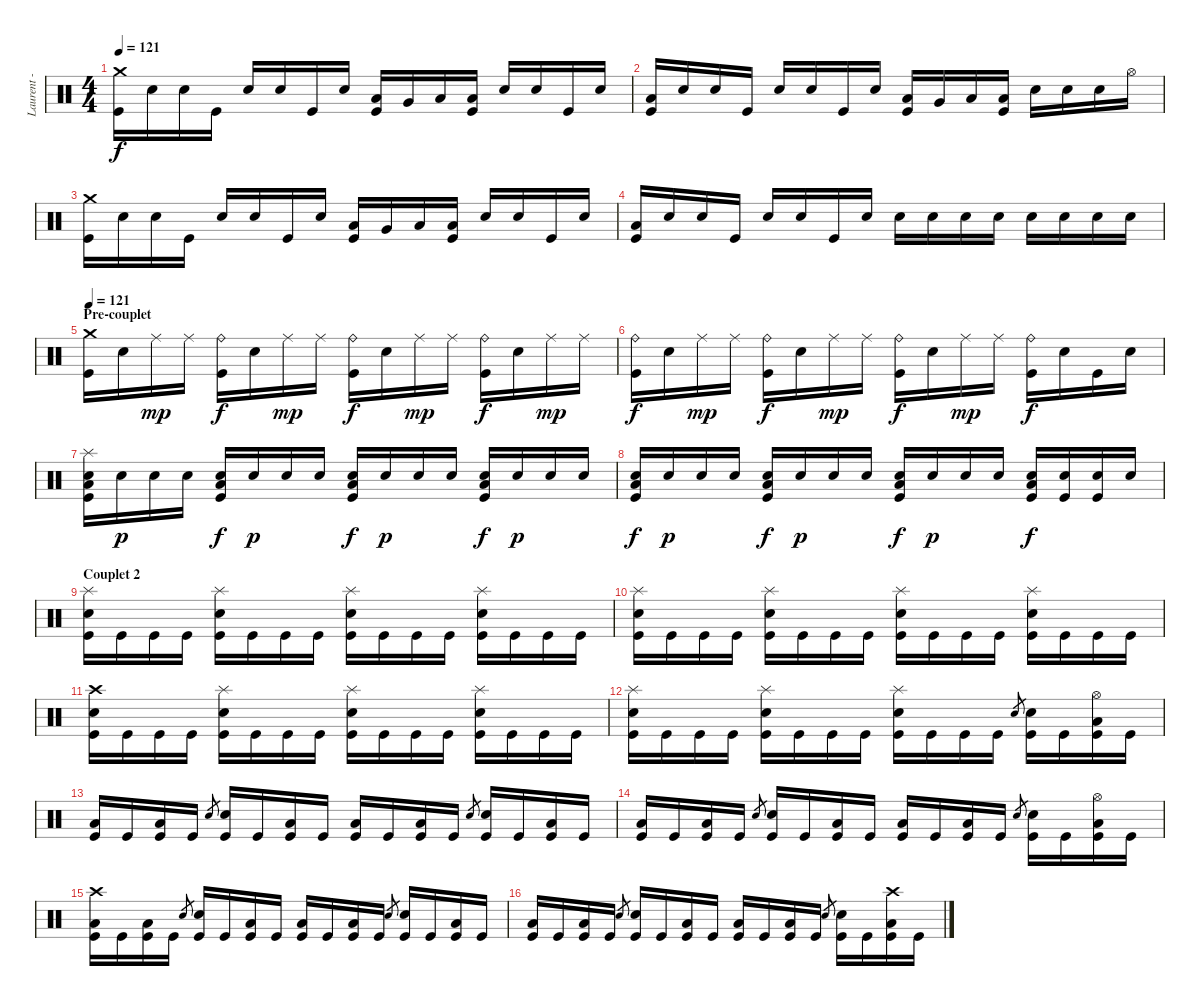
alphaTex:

\track ("Laurent - Batterie" "Laurent - ") {instrument percussion}
\staff {score}
\articulation defaults
\ts (4 4)
\tempo 121
\clef neutral
\ks c
("Crash medium (hit)" "Kick (hit)").16{dy f} "Snare (hit)".16 "Snare (hit)".16 "Kick (hit)".16 "Electric Snare (hit)".16 "Snare (hit)".16 "Kick (hit)".16 "Snare (hit)".16 ("Low Tom (hit)" "Kick (hit)").16 "Very Low Tom (hit)".16 "Low Floor Tom (hit)".16 ("Low Floor Tom (hit)" "Kick (hit)").16 "Electric Snare (hit)".16 "Snare (hit)".16 "Kick (hit)".16 "Snare (hit)".16 |
("Low Floor Tom (hit)" "Kick (hit)").16 "Snare (hit)".16 "Snare (hit)".16 "Kick (hit)".16 "Electric Snare (hit)".16 "Snare (hit)".16 "Kick (hit)".16 "Snare (hit)".16 ("Low Tom (hit)" "Kick (hit)").16 "Very Low Tom (hit)".16 "Low Floor Tom (hit)".16 ("Low Floor Tom (hit)" "Kick (hit)").16 "Electric Snare (hit)".16 "Snare (hit)".16 "Snare (hit)".16 "Hi-Hat (open)".16 |
("Crash medium (hit)" "Kick (hit)").16 "Snare (hit)".16 "Snare (hit)".16 "Kick (hit)".16 "Electric Snare (hit)".16 "Snare (hit)".16 "Kick (hit)".16 "Snare (hit)".16 ("Low Tom (hit)" "Kick (hit)").16 "Very Low Tom (hit)".16 "Low Floor Tom (hit)".16 ("Low Floor Tom (hit)" "Kick (hit)").16 "Electric Snare (hit)".16 "Snare (hit)".16 "Kick (hit)".16 "Snare (hit)".16 |
("Low Floor Tom (hit)" "Kick (hit)").16 "Snare (hit)".16 "Snare (hit)".16 "Kick (hit)".16 "Electric Snare (hit)".16 "Snare (hit)".16 "Kick (hit)".16 "Snare (hit)".16 "Electric Snare (hit)".16 "Electric Snare (hit)".16 "Electric Snare (hit)".16 "Snare (hit)".16 "Electric Snare (hit)".16 "Electric Snare (hit)".16 "Electric Snare (hit)".16 "Snare (hit)".16 |
\section ("" "Pre-couplet")
\tempo 121
("Crash medium (hit)" "Kick (hit)").16{volume 16 balance 8} "Snare (hit)".16 "Ride (middle)".16{dy mp} "Ride (middle)".16 ("Ride (bell)" "Kick (hit)").16{dy f} "Snare (hit)".16 "Ride (middle)".16{dy mp} "Ride (middle)".16 ("Ride (bell)" "Kick (hit)").16{dy f} "Snare (hit)".16 "Ride (middle)".16{dy mp} "Ride (middle)".16 ("Ride (bell)" "Kick (hit)").16{dy f} "Snare (hit)".16 "Ride (middle)".16{dy mp} "Ride (middle)".16 |
("Ride (bell)" "Kick (hit)").16{dy f} "Snare (hit)".16 "Ride (middle)".16{dy mp} "Ride (middle)".16 ("Ride (bell)" "Kick (hit)").16{dy f} "Snare (hit)".16 "Ride (middle)".16{dy mp} "Ride (middle)".16 ("Ride (bell)" "Kick (hit)").16{dy f} "Snare (hit)".16 "Ride (middle)".16{dy mp} "Ride (middle)".16 ("Ride (bell)" "Kick (hit)").16{dy f} "Snare (hit)".16 "Kick (hit)".16 "Snare (hit)".16 |
("Splash (hit)" "Electric Snare (hit)" "Low Floor Tom (hit)" "Kick (hit)").16 "Electric Snare (hit)".16{dy p} "Electric Snare (hit)".16 "Electric Snare (hit)".16 ("Electric Snare (hit)" "Low Floor Tom (hit)" "Kick (hit)").16{dy f} "Electric Snare (hit)".16{dy p} "Electric Snare (hit)".16 "Electric Snare (hit)".16 ("Electric Snare (hit)" "Low Floor Tom (hit)" "Kick (hit)").16{dy f} "Electric Snare (hit)".16{dy p} "Electric Snare (hit)".16 "Electric Snare (hit)".16 ("Electric Snare (hit)" "Low Floor Tom (hit)" "Kick (hit)").16{dy f} "Electric Snare (hit)".16{dy p} "Electric Snare (hit)".16 "Electric Snare (hit)".16 |
("Electric Snare (hit)" "Low Floor Tom (hit)" "Kick (hit)").16{dy f} "Electric Snare (hit)".16{dy p} "Electric Snare (hit)".16 "Electric Snare (hit)".16 ("Electric Snare (hit)" "Low Floor Tom (hit)" "Kick (hit)").16{dy f} "Electric Snare (hit)".16{dy p} "Electric Snare (hit)".16 "Electric Snare (hit)".16 ("Electric Snare (hit)" "Low Floor Tom (hit)" "Kick (hit)").16{dy f} "Electric Snare (hit)".16{dy p} "Electric Snare (hit)".16 "Electric Snare (hit)".16 ("Electric Snare (hit)" "Low Floor Tom (hit)" "Kick (hit)").16{dy f} ("Electric Snare (hit)" "Kick (hit)").16 ("Electric Snare (hit)" "Kick (hit)").16 "Snare (hit)".16 |
\section ("" "Couplet 2")
("Splash (hit)" "Electric Snare (hit)" "Kick (hit)").16{volume 16 balance 8} "Kick (hit)".16 "Kick (hit)".16 "Kick (hit)".16 ("Splash (hit)" "Electric Snare (hit)" "Kick (hit)").16 "Kick (hit)".16 "Kick (hit)".16 "Kick (hit)".16 ("Splash (hit)" "Electric Snare (hit)" "Kick (hit)").16 "Kick (hit)".16 "Kick (hit)".16 "Kick (hit)".16 ("Splash (hit)" "Electric Snare (hit)" "Kick (hit)").16 "Kick (hit)".16 "Kick (hit)".16 "Kick (hit)".16 |
("Splash (hit)" "Electric Snare (hit)" "Kick (hit)").16 "Kick (hit)".16 "Kick (hit)".16 "Kick (hit)".16 ("Splash (hit)" "Electric Snare (hit)" "Kick (hit)").16 "Kick (hit)".16 "Kick (hit)".16 "Kick (hit)".16 ("Splash (hit)" "Electric Snare (hit)" "Kick (hit)").16 "Kick (hit)".16 "Kick (hit)".16 "Kick (hit)".16 ("Splash (hit)" "Electric Snare (hit)" "Kick (hit)").16 "Kick (hit)".16 "Kick (hit)".16 "Kick (hit)".16 |
("Crash high (hit)" "Electric Snare (hit)" "Kick (hit)").16 "Kick (hit)".16 "Kick (hit)".16 "Kick (hit)".16 ("Splash (hit)" "Electric Snare (hit)" "Kick (hit)").16 "Kick (hit)".16 "Kick (hit)".16 "Kick (hit)".16 ("Splash (hit)" "Electric Snare (hit)" "Kick (hit)").16 "Kick (hit)".16 "Kick (hit)".16 "Kick (hit)".16 ("Splash (hit)" "Electric Snare (hit)" "Kick (hit)").16 "Kick (hit)".16 "Kick (hit)".16 "Kick (hit)".16 |
("Splash (hit)" "Electric Snare (hit)" "Kick (hit)").16 "Kick (hit)".16 "Kick (hit)".16 "Kick (hit)".16 ("Splash (hit)" "Electric Snare (hit)" "Kick (hit)").16 "Kick (hit)".16 "Kick (hit)".16 "Kick (hit)".16 ("Splash (hit)" "Electric Snare (hit)" "Kick (hit)").16 "Kick (hit)".16 "Kick (hit)".16 "Kick (hit)".16 "Electric Snare (hit)".8{gr} ("Electric Snare (hit)" "Kick (hit)").16 "Kick (hit)".16 ("Hi-Hat (open)" "Low Tom (hit)" "Kick (hit)").16 "Kick (hit)".16 |
\section ("" "")
("Low Floor Tom (hit)" "Kick (hit)").16 "Kick (hit)".16 ("Low Floor Tom (hit)" "Kick (hit)").16 "Kick (hit)".16 "Electric Snare (hit)".8{gr} ("Electric Snare (hit)" "Kick (hit)").16 "Kick (hit)".16 ("Low Floor Tom (hit)" "Kick (hit)").16 "Kick (hit)".16 ("Low Floor Tom (hit)" "Kick (hit)").16 "Kick (hit)".16 ("Low Floor Tom (hit)" "Kick (hit)").16 "Kick (hit)".16 "Electric Snare (hit)".8{gr} ("Electric Snare (hit)" "Kick (hit)").16 "Kick (hit)".16 ("Low Floor Tom (hit)" "Kick (hit)").16 "Kick (hit)".16 |
("Low Floor Tom (hit)" "Kick (hit)").16 "Kick (hit)".16 ("Low Floor Tom (hit)" "Kick (hit)").16 "Kick (hit)".16 "Electric Snare (hit)".8{gr} ("Electric Snare (hit)" "Kick (hit)").16 "Kick (hit)".16 ("Low Floor Tom (hit)" "Kick (hit)").16 "Kick (hit)".16 ("Low Floor Tom (hit)" "Kick (hit)").16 "Kick (hit)".16 ("Low Floor Tom (hit)" "Kick (hit)").16 "Kick (hit)".16 "Electric Snare (hit)".8{gr} ("Electric Snare (hit)" "Kick (hit)").16 "Kick (hit)".16 ("Hi-Hat (open)" "Low Floor Tom (hit)" "Kick (hit)").16 "Kick (hit)".16 |
("Crash high (hit)" "Low Floor Tom (hit)" "Kick (hit)").16 "Kick (hit)".16 ("Low Floor Tom (hit)" "Kick (hit)").16 "Kick (hit)".16 "Electric Snare (hit)".8{gr} ("Electric Snare (hit)" "Kick (hit)").16 "Kick (hit)".16 ("Low Floor Tom (hit)" "Kick (hit)").16 "Kick (hit)".16 ("Low Floor Tom (hit)" "Kick (hit)").16 "Kick (hit)".16 ("Low Floor Tom (hit)" "Kick (hit)").16 "Kick (hit)".16 "Electric Snare (hit)".8{gr} ("Electric Snare (hit)" "Kick (hit)").16 "Kick (hit)".16 ("Low Floor Tom (hit)" "Kick (hit)").16 "Kick (hit)".16 |
("Low Floor Tom (hit)" "Kick (hit)").16 "Kick (hit)".16 ("Low Floor Tom (hit)" "Kick (hit)").16 "Kick (hit)".16 "Electric Snare (hit)".8{gr} ("Electric Snare (hit)" "Kick (hit)").16 "Kick (hit)".16 ("Low Floor Tom (hit)" "Kick (hit)").16 "Kick (hit)".16 ("Low Floor Tom (hit)" "Kick (hit)").16 "Kick (hit)".16 ("Low Floor Tom (hit)" "Kick (hit)").16 "Kick (hit)".16 "Electric Snare (hit)".8{gr} ("Electric Snare (hit)" "Kick (hit)").16 "Kick (hit)".16 ("Crash high (hit)" "Low Floor Tom (hit)" "Kick (hit)").16 "Kick (hit)".16
